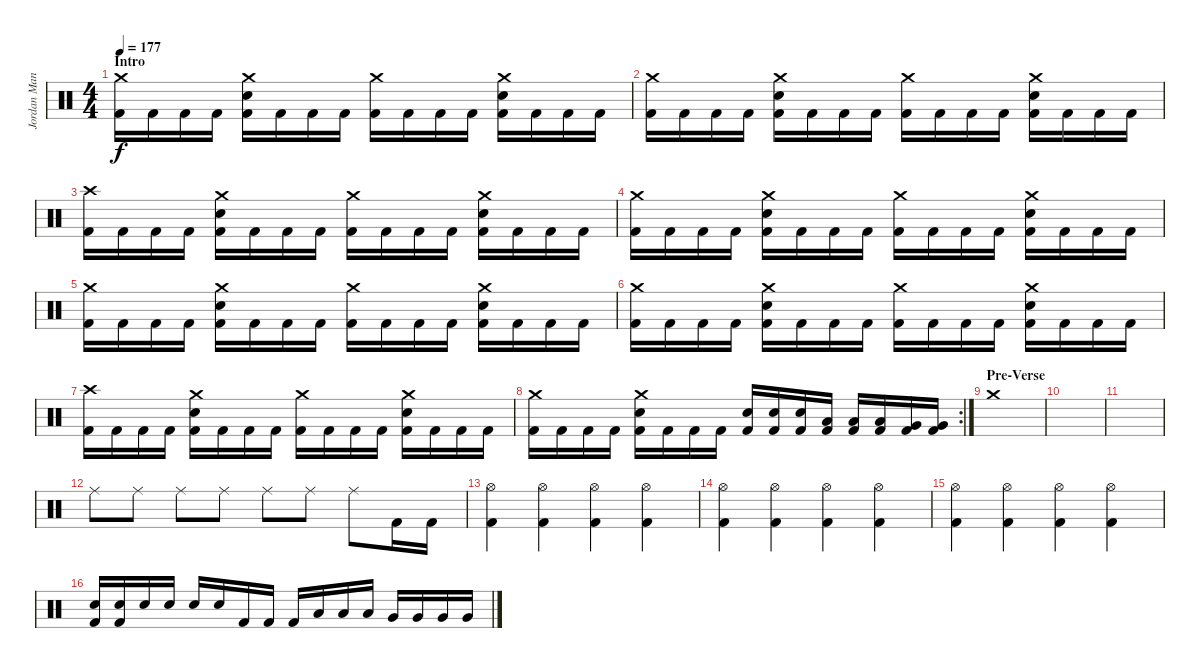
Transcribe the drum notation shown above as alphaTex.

\track ("Jordan Mancino" "Jordan Man") {instrument percussion}
\staff {score}
\articulation defaults
\ts (4 4)
\section ("" "Intro")
\tempo 177
\clef neutral
\ks c
("Crash medium (hit)" "Kick (hit) 2").16{dy f} "Kick (hit) 2".16 "Kick (hit) 2".16 "Kick (hit) 2".16 ("Crash medium (hit)" "Electric Snare (hit)" "Kick (hit) 2").16 "Kick (hit) 2".16 "Kick (hit) 2".16 "Kick (hit) 2".16 ("Crash medium (hit)" "Kick (hit) 2").16 "Kick (hit) 2".16 "Kick (hit) 2".16 "Kick (hit) 2".16 ("Crash medium (hit)" "Electric Snare (hit)" "Kick (hit) 2").16 "Kick (hit) 2".16 "Kick (hit) 2".16 "Kick (hit) 2".16 |
("Crash medium (hit)" "Kick (hit) 2").16 "Kick (hit) 2".16 "Kick (hit) 2".16 "Kick (hit) 2".16 ("Crash medium (hit)" "Electric Snare (hit)" "Kick (hit) 2").16 "Kick (hit) 2".16 "Kick (hit) 2".16 "Kick (hit) 2".16 ("Crash medium (hit)" "Kick (hit) 2").16 "Kick (hit) 2".16 "Kick (hit) 2".16 "Kick (hit) 2".16 ("Crash medium (hit)" "Electric Snare (hit)" "Kick (hit) 2").16 "Kick (hit) 2".16 "Kick (hit) 2".16 "Kick (hit) 2".16 |
("Crash high (hit)" "Kick (hit) 2").16 "Kick (hit) 2".16 "Kick (hit) 2".16 "Kick (hit) 2".16 ("Crash medium (hit)" "Electric Snare (hit)" "Kick (hit) 2").16 "Kick (hit) 2".16 "Kick (hit) 2".16 "Kick (hit) 2".16 ("Crash medium (hit)" "Kick (hit) 2").16 "Kick (hit) 2".16 "Kick (hit) 2".16 "Kick (hit) 2".16 ("Crash medium (hit)" "Electric Snare (hit)" "Kick (hit) 2").16 "Kick (hit) 2".16 "Kick (hit) 2".16 "Kick (hit) 2".16 |
("Crash medium (hit)" "Kick (hit) 2").16 "Kick (hit) 2".16 "Kick (hit) 2".16 "Kick (hit) 2".16 ("Crash medium (hit)" "Electric Snare (hit)" "Kick (hit) 2").16 "Kick (hit) 2".16 "Kick (hit) 2".16 "Kick (hit) 2".16 ("Crash medium (hit)" "Kick (hit) 2").16 "Kick (hit) 2".16 "Kick (hit) 2".16 "Kick (hit) 2".16 ("Crash medium (hit)" "Electric Snare (hit)" "Kick (hit) 2").16 "Kick (hit) 2".16 "Kick (hit) 2".16 "Kick (hit) 2".16 |
("Crash medium (hit)" "Kick (hit) 2").16 "Kick (hit) 2".16 "Kick (hit) 2".16 "Kick (hit) 2".16 ("Crash medium (hit)" "Electric Snare (hit)" "Kick (hit) 2").16 "Kick (hit) 2".16 "Kick (hit) 2".16 "Kick (hit) 2".16 ("Crash medium (hit)" "Kick (hit) 2").16 "Kick (hit) 2".16 "Kick (hit) 2".16 "Kick (hit) 2".16 ("Crash medium (hit)" "Electric Snare (hit)" "Kick (hit) 2").16 "Kick (hit) 2".16 "Kick (hit) 2".16 "Kick (hit) 2".16 |
("Crash medium (hit)" "Kick (hit) 2").16 "Kick (hit) 2".16 "Kick (hit) 2".16 "Kick (hit) 2".16 ("Crash medium (hit)" "Electric Snare (hit)" "Kick (hit) 2").16 "Kick (hit) 2".16 "Kick (hit) 2".16 "Kick (hit) 2".16 ("Crash medium (hit)" "Kick (hit) 2").16 "Kick (hit) 2".16 "Kick (hit) 2".16 "Kick (hit) 2".16 ("Crash medium (hit)" "Electric Snare (hit)" "Kick (hit) 2").16 "Kick (hit) 2".16 "Kick (hit) 2".16 "Kick (hit) 2".16 |
("Crash high (hit)" "Kick (hit) 2").16 "Kick (hit) 2".16 "Kick (hit) 2".16 "Kick (hit) 2".16 ("Crash medium (hit)" "Electric Snare (hit)" "Kick (hit) 2").16 "Kick (hit) 2".16 "Kick (hit) 2".16 "Kick (hit) 2".16 ("Crash medium (hit)" "Kick (hit) 2").16 "Kick (hit) 2".16 "Kick (hit) 2".16 "Kick (hit) 2".16 ("Crash medium (hit)" "Electric Snare (hit)" "Kick (hit) 2").16 "Kick (hit) 2".16 "Kick (hit) 2".16 "Kick (hit) 2".16 |
\rc 2
("Crash medium (hit)" "Kick (hit) 2").16 "Kick (hit) 2".16 "Kick (hit) 2".16 "Kick (hit) 2".16 ("Crash medium (hit)" "Electric Snare (hit)" "Kick (hit) 2").16 "Kick (hit) 2".16 "Kick (hit) 2".16 "Kick (hit) 2".16 ("Electric Snare (hit)" "Kick (hit) 2").16 ("Electric Snare (hit)" "Kick (hit) 2").16 ("Electric Snare (hit)" "Kick (hit) 2").16 ("Low Tom (hit)" "Kick (hit) 2").16 ("Low Tom (hit)" "Kick (hit) 2").16 ("Low Tom (hit)" "Kick (hit) 2").16 ("Very Low Tom (hit)" "Kick (hit) 2").16 ("Very Low Tom (hit)" "Kick (hit) 2").16 |
\section ("" "Pre-Verse")
"Crash medium (hit)".1 |
|
|
"Ride (middle)".8 "Ride (middle)".8 "Ride (middle)".8 "Ride (middle)".8 "Ride (middle)".8 "Ride (middle)".8 "Ride (middle)".8 "Kick (hit) 2".16 "Kick (hit) 2".16 |
("Hi-Hat (open)" "Kick (hit) 2").4 ("Hi-Hat (open)" "Kick (hit) 2").4 ("Hi-Hat (open)" "Kick (hit) 2").4 ("Hi-Hat (open)" "Kick (hit) 2").4 |
("Hi-Hat (open)" "Kick (hit) 2").4 ("Hi-Hat (open)" "Kick (hit) 2").4 ("Hi-Hat (open)" "Kick (hit) 2").4 ("Hi-Hat (open)" "Kick (hit) 2").4 |
("Hi-Hat (open)" "Kick (hit) 2").4 ("Hi-Hat (open)" "Kick (hit) 2").4 ("Hi-Hat (open)" "Kick (hit) 2").4 ("Hi-Hat (open)" "Kick (hit) 2").4 |
("Electric Snare (hit)" "Kick (hit) 2").16 ("Electric Snare (hit)" "Kick (hit) 2").16 "Electric Snare (hit)".16 "Electric Snare (hit)".16 "Electric Snare (hit)".16 "Electric Snare (hit)".16 "Kick (hit) 2".16 "Kick (hit) 2".16 "Kick (hit) 2".16 "Low Tom (hit)".16 "Low Tom (hit)".16 "Low Tom (hit)".16 "Very Low Tom (hit)".16 "Very Low Tom (hit)".16 "Very Low Tom (hit)".16 "Very Low Tom (hit)".16
